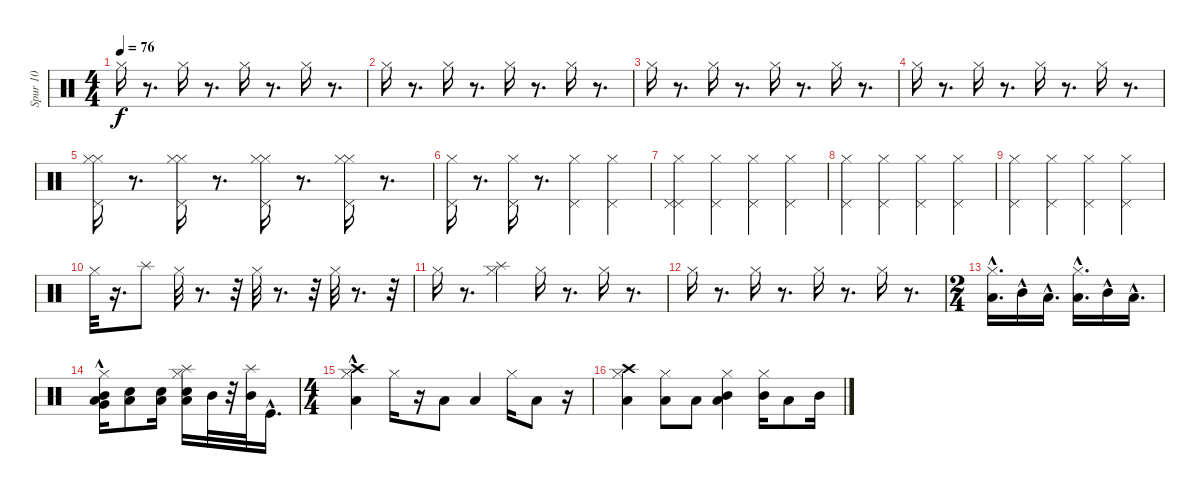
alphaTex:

\track ("Spur 10" "Spur 10") {instrument percussion}
\staff {score}
\articulation defaults
\ts (4 4)
\tempo 76
\clef neutral
\ks c "Hi-Hat (closed)".16{dy f}
r.8{d} "Hi-Hat (closed)".16 r.8{d} "Hi-Hat (closed)".16 r.8{d} "Hi-Hat (closed)".16 r.8{d} |
"Hi-Hat (closed)".16 r.8{d} "Hi-Hat (closed)".16 r.8{d} "Hi-Hat (closed)".16 r.8{d} "Hi-Hat (closed)".16 r.8{d} |
"Hi-Hat (closed)".16 r.8{d} "Hi-Hat (closed)".16 r.8{d} "Hi-Hat (closed)".16 r.8{d} "Hi-Hat (closed)".16 r.8{d} |
"Hi-Hat (closed)".16 r.8{d} "Hi-Hat (closed)".16 r.8{d} "Hi-Hat (closed)".16 r.8{d} "Hi-Hat (closed)".16 r.8{d} |
("Hi-Hat (closed)" "Pedal Hi-Hat (hit)" "Hi-Hat (closed)").16 r.8{d} ("Pedal Hi-Hat (hit)" "Hi-Hat (closed)" "Hi-Hat (closed)").16 r.8{d} ("Pedal Hi-Hat (hit)" "Hi-Hat (closed)" "Hi-Hat (closed)").16 r.8{d} ("Pedal Hi-Hat (hit)" "Hi-Hat (closed)" "Hi-Hat (closed)").16 r.8{d} |
("Pedal Hi-Hat (hit)" "Hi-Hat (closed)").16 r.8{d} ("Pedal Hi-Hat (hit)" "Hi-Hat (closed)").16 r.8{d} ("Pedal Hi-Hat (hit)" "Hi-Hat (closed)").4 ("Hi-Hat (closed)" "Pedal Hi-Hat (hit)").4 |
("Pedal Hi-Hat (hit)" "Pedal Hi-Hat (hit)" "Hi-Hat (closed)").4 ("Pedal Hi-Hat (hit)" "Hi-Hat (closed)").4 ("Pedal Hi-Hat (hit)" "Hi-Hat (closed)").4 ("Pedal Hi-Hat (hit)" "Hi-Hat (closed)").4 |
("Pedal Hi-Hat (hit)" "Hi-Hat (closed)").4 ("Pedal Hi-Hat (hit)" "Hi-Hat (closed)").4 ("Pedal Hi-Hat (hit)" "Hi-Hat (closed)").4 ("Pedal Hi-Hat (hit)" "Hi-Hat (closed)").4 |
("Pedal Hi-Hat (hit)" "Hi-Hat (closed)").4 ("Pedal Hi-Hat (hit)" "Hi-Hat (closed)").4 ("Pedal Hi-Hat (hit)" "Hi-Hat (closed)").4 ("Pedal Hi-Hat (hit)" "Hi-Hat (closed)").4 |
"Hi-Hat (closed)".32 r.16{d} "Splash (hit)".8 "Hi-Hat (closed)".32 r.8{d} r.32 "Hi-Hat (closed)".32 r.8{d} r.32 "Hi-Hat (closed)".32 r.8{d} r.32 |
"Hi-Hat (closed)".16 r.8{d} ("Hi-Hat (closed)" "Splash (hit)").4 "Hi-Hat (closed)".16 r.8{d} "Hi-Hat (closed)".16 r.8{d} |
"Hi-Hat (closed)".16 r.8{d} "Hi-Hat (closed)".16 r.8{d} "Hi-Hat (closed)".16 r.8{d} "Hi-Hat (closed)".16 r.8{d} |
\ts (2 4)
("Hi-Hat (closed)" "Low Tom (hit)"{hac}).16{d} "Mid Tom (hit)"{hac}.16 "Low Floor Tom (hit)"{hac}.16{d} ("Hi-Hat (closed)" "Low Tom (hit)"{hac}).16{d} "Mid Tom (hit)"{hac}.16 "Low Floor Tom (hit)"{hac}.16{d} |
("Hi-Hat (closed)" "Low Tom (hit)" "Very Low Tom (hit)"{hac} "Mid Tom (hit)"{hac}).16 ("Low Floor Tom (hit)" "Snare (hit) 2").8 ("Low Tom (hit)" "Snare (hit) 2").16 ("Hi-Hat (closed)" "Snare (hit) 2" "Splash (hit)" "Low Floor Tom (hit)").16 "Mid Tom (hit)".32 r.32 ("Splash (hit)" "Mid Tom (hit)").32 "Kick (hit)"{hac}.16{d} |
\ts (4 4)
("Hi-Hat (closed)"{hac} "Crash high (hit)"{hac} "Low Floor Tom (hit)"{hac}).4 "Hi-Hat (closed)".16 r.16 "Low Floor Tom (hit)".8 "Low Floor Tom (hit)".4 "Hi-Hat (closed)".16 "Low Floor Tom (hit)".8 r.16 |
("Hi-Hat (closed)" "Low Floor Tom (hit)" "Crash high (hit)").4 ("Hi-Hat (closed)" "Low Floor Tom (hit)").8 "Low Floor Tom (hit)".8 ("Hi-Hat (closed)" "Mid Tom (hit)" "Low Floor Tom (hit)").4 ("Hi-Hat (closed)" "Mid Tom (hit)").16 "Low Floor Tom (hit)".8 "Mid Tom (hit)".16
